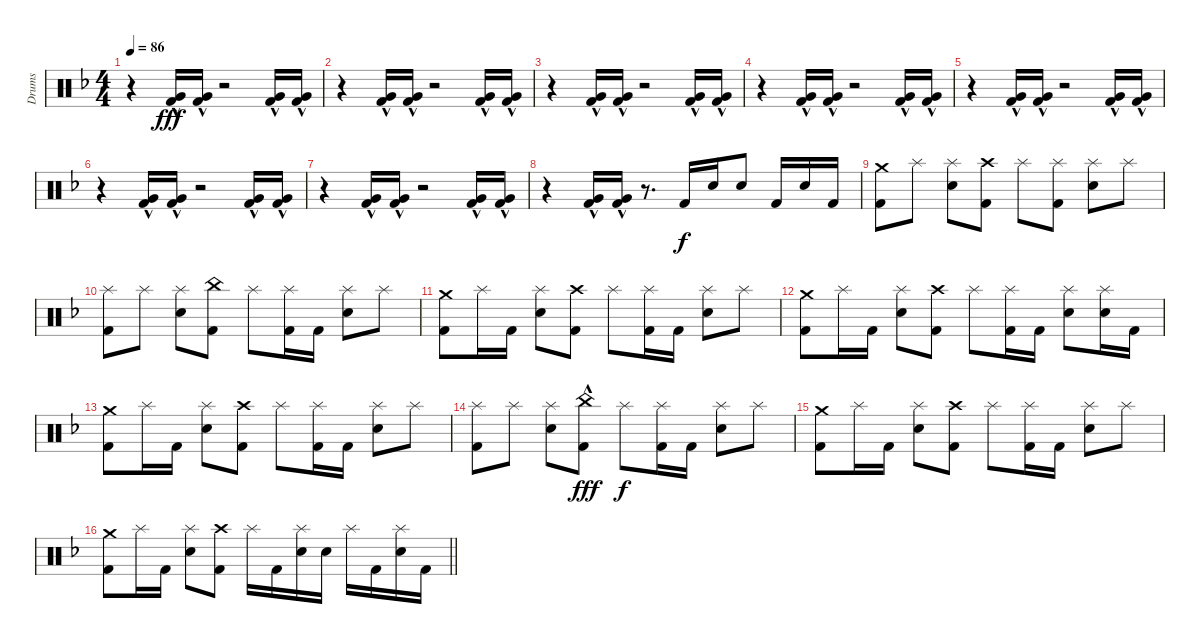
\track ("Drums" "Drums") {instrument percussion}
\staff {score}
\articulation defaults
\ts (4 4)
\tempo 86
\clef neutral
\ks dminor
r.4{dy f} ("Very Low Tom (hit)"{hac} "Kick (hit) 2").16{dy fff} ("Very Low Tom (hit)"{hac} "Kick (hit) 2").16 r.2 ("Very Low Tom (hit)"{hac} "Kick (hit) 2").16 ("Very Low Tom (hit)"{hac} "Kick (hit) 2").16 |
r.4 ("Very Low Tom (hit)"{hac} "Kick (hit) 2").16 ("Very Low Tom (hit)"{hac} "Kick (hit) 2").16 r.2 ("Very Low Tom (hit)"{hac} "Kick (hit) 2").16 ("Very Low Tom (hit)"{hac} "Kick (hit) 2").16 |
r.4 ("Very Low Tom (hit)"{hac} "Kick (hit) 2").16 ("Very Low Tom (hit)"{hac} "Kick (hit) 2").16 r.2 ("Very Low Tom (hit)"{hac} "Kick (hit) 2").16 ("Very Low Tom (hit)"{hac} "Kick (hit) 2").16 |
r.4 ("Very Low Tom (hit)"{hac} "Kick (hit) 2").16 ("Very Low Tom (hit)"{hac} "Kick (hit) 2").16 r.2 ("Very Low Tom (hit)"{hac} "Kick (hit) 2").16 ("Very Low Tom (hit)"{hac} "Kick (hit) 2").16 |
r.4 ("Very Low Tom (hit)"{hac} "Kick (hit) 2").16 ("Very Low Tom (hit)"{hac} "Kick (hit) 2").16 r.2 ("Very Low Tom (hit)"{hac} "Kick (hit) 2").16 ("Very Low Tom (hit)"{hac} "Kick (hit) 2").16 |
r.4 ("Very Low Tom (hit)"{hac} "Kick (hit) 2").16 ("Very Low Tom (hit)"{hac} "Kick (hit) 2").16 r.2 ("Very Low Tom (hit)"{hac} "Kick (hit) 2").16 ("Very Low Tom (hit)"{hac} "Kick (hit) 2").16 |
r.4 ("Very Low Tom (hit)"{hac} "Kick (hit) 2").16 ("Very Low Tom (hit)"{hac} "Kick (hit) 2").16 r.2 ("Very Low Tom (hit)"{hac} "Kick (hit) 2").16 ("Very Low Tom (hit)"{hac} "Kick (hit) 2").16 |
r.4 ("Very Low Tom (hit)"{hac} "Kick (hit) 2").16 ("Very Low Tom (hit)"{hac} "Kick (hit) 2").16 r.8{d} "Kick (hit) 2".16{dy f} "Snare (hit) 2".16 "Snare (hit) 2".8 "Kick (hit) 2".16 "Snare (hit) 2".16 "Kick (hit) 2".16 |
("Crash medium (hit)" "Kick (hit) 2").8 "Splash (hit)".8 ("Splash (hit)" "Snare (hit) 2").8 ("Crash high (hit)" "Kick (hit) 2").8 "Splash (hit)".8 ("Splash (hit)" "Kick (hit) 2").8 ("Splash (hit)" "Snare (hit) 2").8 "Splash (hit)".8 |
("Splash (hit)" "Kick (hit) 2").8 "Splash (hit)".8 ("Splash (hit)" "Snare (hit) 2").8 ("China (hit)" "Kick (hit) 2").8 "Splash (hit)".8 ("Splash (hit)" "Kick (hit) 2").16 "Kick (hit) 2".16 ("Splash (hit)" "Snare (hit) 2").8 "Splash (hit)".8 |
("Crash medium (hit)" "Kick (hit) 2").8 "Splash (hit)".16 "Kick (hit) 2".16 ("Splash (hit)" "Snare (hit) 2").8 ("Crash high (hit)" "Kick (hit) 2").8 "Splash (hit)".8 ("Splash (hit)" "Kick (hit) 2").16 "Kick (hit) 2".16 ("Splash (hit)" "Snare (hit) 2").8 "Splash (hit)".8 |
("Crash medium (hit)" "Kick (hit) 2").8 "Splash (hit)".16 "Kick (hit) 2".16 ("Splash (hit)" "Snare (hit) 2").8 ("Crash high (hit)" "Kick (hit) 2").8 "Splash (hit)".8 ("Splash (hit)" "Kick (hit) 2").16 "Kick (hit) 2".16 ("Splash (hit)" "Snare (hit) 2").8 ("Splash (hit)" "Snare (hit) 2").16 "Kick (hit) 2".16 |
("Crash medium (hit)" "Kick (hit) 2").8 "Splash (hit)".16 "Kick (hit) 2".16 ("Splash (hit)" "Snare (hit) 2").8 ("Crash high (hit)" "Kick (hit) 2").8 "Splash (hit)".8 ("Splash (hit)" "Kick (hit) 2").16 "Kick (hit) 2".16 ("Splash (hit)" "Snare (hit) 2").8 "Splash (hit)".8 |
("Splash (hit)" "Kick (hit) 2").8 "Splash (hit)".8 ("Splash (hit)" "Snare (hit) 2").8 ("China (hit)"{hac} "Kick (hit) 2").8{dy fff} "Splash (hit)".8{dy f} ("Splash (hit)" "Kick (hit) 2").16 "Kick (hit) 2".16 ("Splash (hit)" "Snare (hit) 2").8 "Splash (hit)".8 |
("Crash medium (hit)" "Kick (hit) 2").8 "Splash (hit)".16 "Kick (hit) 2".16 ("Splash (hit)" "Snare (hit) 2").8 ("Crash high (hit)" "Kick (hit) 2").8 "Splash (hit)".8 ("Splash (hit)" "Kick (hit) 2").16 "Kick (hit) 2".16 ("Splash (hit)" "Snare (hit) 2").8 "Splash (hit)".8 |
\barLineRight lightlight
("Crash medium (hit)" "Kick (hit) 2").8 "Splash (hit)".16 "Kick (hit) 2".16 ("Splash (hit)" "Snare (hit) 2").8 ("Crash high (hit)" "Kick (hit) 2").8 "Splash (hit)".16 "Kick (hit) 2".16 ("Splash (hit)" "Snare (hit) 2").16 "Snare (hit) 2".16 "Splash (hit)".16 "Kick (hit) 2".16 ("Splash (hit)" "Snare (hit) 2").16 "Kick (hit) 2".16
